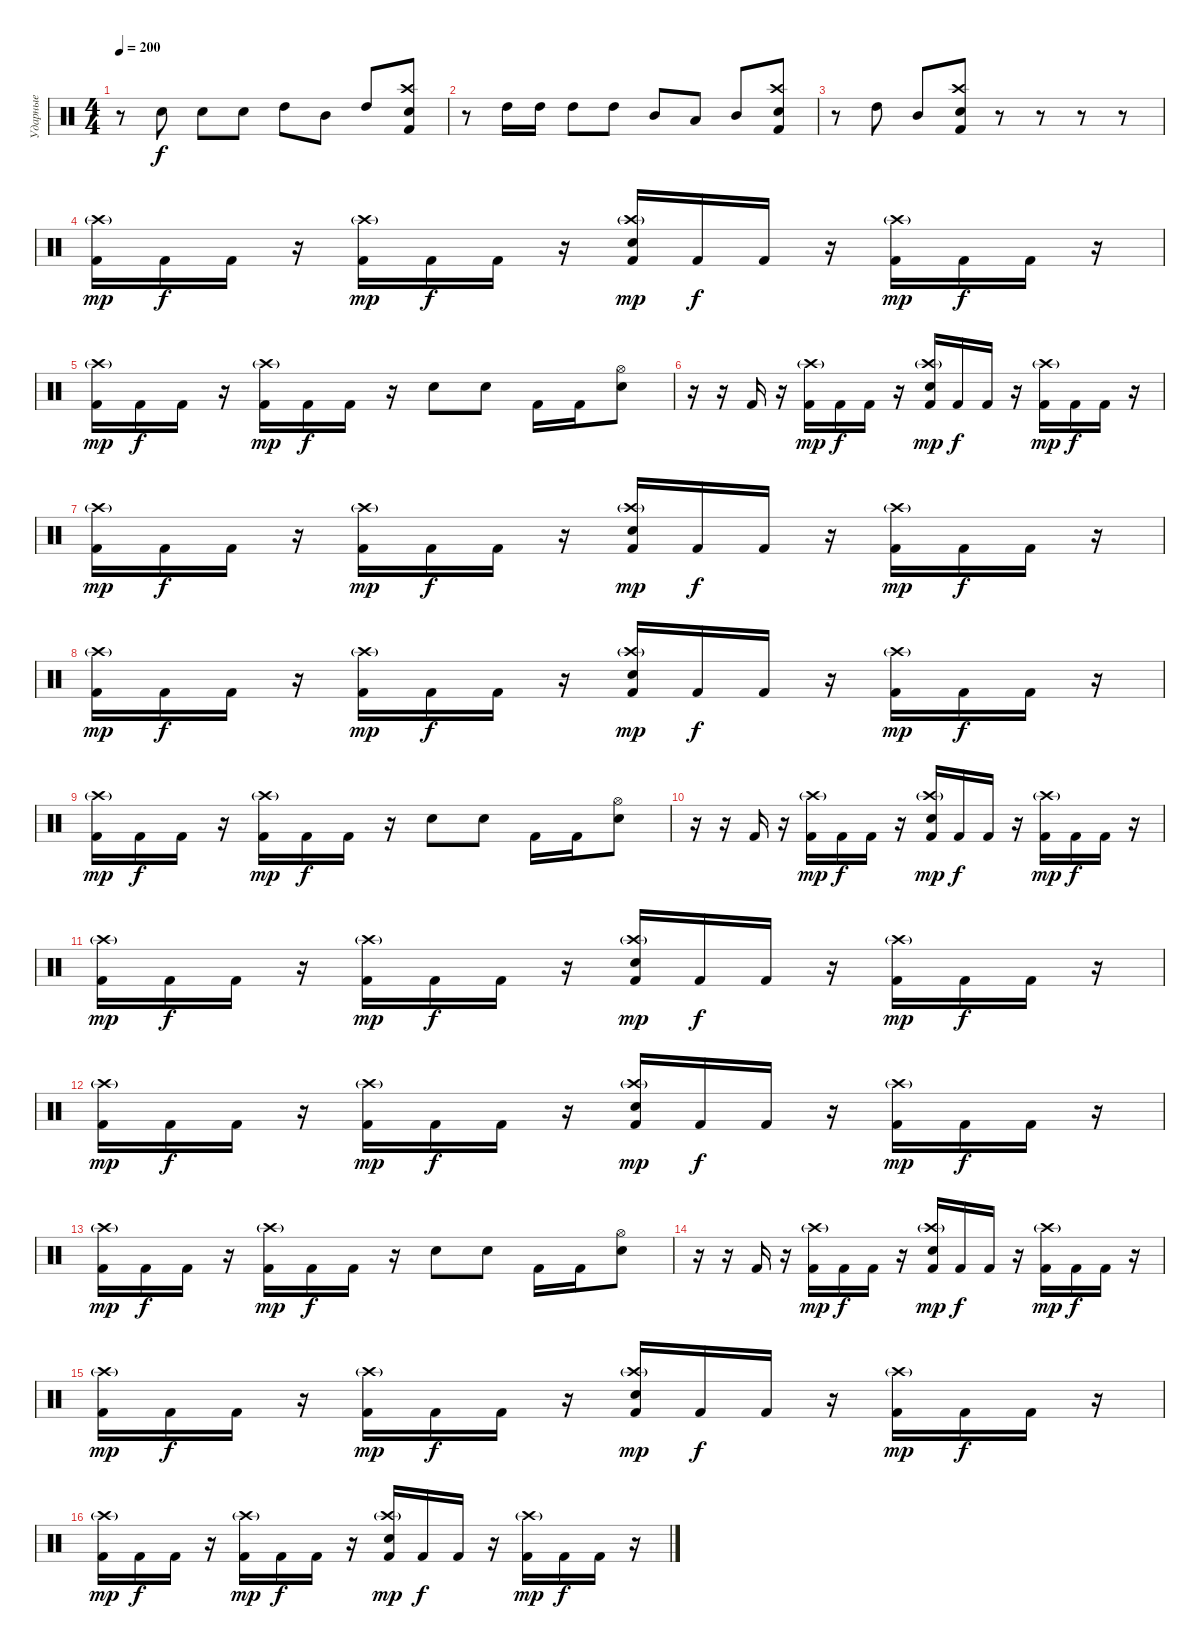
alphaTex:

\track ("Ударные" "Ударные") {instrument percussion bank 101}
\staff {score}
\articulation defaults
\ts (4 4)
\tempo 200
\clef neutral
\ks c
r.8{dy f} "Electric Snare (hit)".8 "Electric Snare (hit)".8 "Electric Snare (hit)".8 "High Tom (hit)".8 "Mid Tom (hit)".8 "High Tom (hit)".8 ("Crash high (hit)" "Electric Snare (hit)" "Kick (hit) 2").8 |
r.8 "High Tom (hit)".16 "High Tom (hit)".16 "High Tom (hit)".8 "High Tom (hit)".8 "Mid Tom (hit)".8 "Low Tom (hit)".8 "Mid Tom (hit)".8 ("Crash high (hit)" "Electric Snare (hit)" "Kick (hit) 2").8 |
r.8 "High Tom (hit)".8 "Mid Tom (hit)".8 ("Crash high (hit)" "Electric Snare (hit)" "Kick (hit) 2").8 r.8 r.8 r.8 r.8 |
("Crash high (hit)"{g} "Kick (hit) 2").16{dy mp} "Kick (hit) 2".16{dy f} "Kick (hit) 2".16 r.16 ("Crash high (hit)"{g} "Kick (hit) 2").16{dy mp} "Kick (hit) 2".16{dy f} "Kick (hit) 2".16 r.16 ("Crash high (hit)"{g} "Electric Snare (hit)" "Kick (hit) 2").16{dy mp} "Kick (hit) 2".16{dy f} "Kick (hit) 2".16 r.16 ("Crash high (hit)"{g} "Kick (hit) 2").16{dy mp} "Kick (hit) 2".16{dy f} "Kick (hit) 2".16 r.16 |
("Crash high (hit)"{g} "Kick (hit) 2").16{dy mp} "Kick (hit) 2".16{dy f} "Kick (hit) 2".16 r.16 ("Crash high (hit)"{g} "Kick (hit) 2").16{dy mp} "Kick (hit) 2".16{dy f} "Kick (hit) 2".16 r.16 "Electric Snare (hit)".8 "Electric Snare (hit)".8 "Kick (hit) 2".16 "Kick (hit) 2".16 ("Hi-Hat (open)" "Electric Snare (hit)").8 |
r.16 r.16 "Kick (hit) 2".16 r.16 ("Crash high (hit)"{g} "Kick (hit) 2").16{dy mp} "Kick (hit) 2".16{dy f} "Kick (hit) 2".16 r.16 ("Crash high (hit)"{g} "Electric Snare (hit)" "Kick (hit) 2").16{dy mp} "Kick (hit) 2".16{dy f} "Kick (hit) 2".16 r.16 ("Crash high (hit)"{g} "Kick (hit) 2").16{dy mp} "Kick (hit) 2".16{dy f} "Kick (hit) 2".16 r.16 |
("Crash high (hit)"{g} "Kick (hit) 2").16{dy mp} "Kick (hit) 2".16{dy f} "Kick (hit) 2".16 r.16 ("Crash high (hit)"{g} "Kick (hit) 2").16{dy mp} "Kick (hit) 2".16{dy f} "Kick (hit) 2".16 r.16 ("Crash high (hit)"{g} "Electric Snare (hit)" "Kick (hit) 2").16{dy mp} "Kick (hit) 2".16{dy f} "Kick (hit) 2".16 r.16 ("Crash high (hit)"{g} "Kick (hit) 2").16{dy mp} "Kick (hit) 2".16{dy f} "Kick (hit) 2".16 r.16 |
("Crash high (hit)"{g} "Kick (hit) 2").16{dy mp} "Kick (hit) 2".16{dy f} "Kick (hit) 2".16 r.16 ("Crash high (hit)"{g} "Kick (hit) 2").16{dy mp} "Kick (hit) 2".16{dy f} "Kick (hit) 2".16 r.16 ("Crash high (hit)"{g} "Electric Snare (hit)" "Kick (hit) 2").16{dy mp} "Kick (hit) 2".16{dy f} "Kick (hit) 2".16 r.16 ("Crash high (hit)"{g} "Kick (hit) 2").16{dy mp} "Kick (hit) 2".16{dy f} "Kick (hit) 2".16 r.16 |
("Crash high (hit)"{g} "Kick (hit) 2").16{dy mp} "Kick (hit) 2".16{dy f} "Kick (hit) 2".16 r.16 ("Crash high (hit)"{g} "Kick (hit) 2").16{dy mp} "Kick (hit) 2".16{dy f} "Kick (hit) 2".16 r.16 "Electric Snare (hit)".8 "Electric Snare (hit)".8 "Kick (hit) 2".16 "Kick (hit) 2".16 ("Hi-Hat (open)" "Electric Snare (hit)").8 |
r.16 r.16 "Kick (hit) 2".16 r.16 ("Crash high (hit)"{g} "Kick (hit) 2").16{dy mp} "Kick (hit) 2".16{dy f} "Kick (hit) 2".16 r.16 ("Crash high (hit)"{g} "Electric Snare (hit)" "Kick (hit) 2").16{dy mp} "Kick (hit) 2".16{dy f} "Kick (hit) 2".16 r.16 ("Crash high (hit)"{g} "Kick (hit) 2").16{dy mp} "Kick (hit) 2".16{dy f} "Kick (hit) 2".16 r.16 |
("Crash high (hit)"{g} "Kick (hit) 2").16{dy mp} "Kick (hit) 2".16{dy f} "Kick (hit) 2".16 r.16 ("Crash high (hit)"{g} "Kick (hit) 2").16{dy mp} "Kick (hit) 2".16{dy f} "Kick (hit) 2".16 r.16 ("Crash high (hit)"{g} "Electric Snare (hit)" "Kick (hit) 2").16{dy mp} "Kick (hit) 2".16{dy f} "Kick (hit) 2".16 r.16 ("Crash high (hit)"{g} "Kick (hit) 2").16{dy mp} "Kick (hit) 2".16{dy f} "Kick (hit) 2".16 r.16 |
("Crash high (hit)"{g} "Kick (hit) 2").16{dy mp} "Kick (hit) 2".16{dy f} "Kick (hit) 2".16 r.16 ("Crash high (hit)"{g} "Kick (hit) 2").16{dy mp} "Kick (hit) 2".16{dy f} "Kick (hit) 2".16 r.16 ("Crash high (hit)"{g} "Electric Snare (hit)" "Kick (hit) 2").16{dy mp} "Kick (hit) 2".16{dy f} "Kick (hit) 2".16 r.16 ("Crash high (hit)"{g} "Kick (hit) 2").16{dy mp} "Kick (hit) 2".16{dy f} "Kick (hit) 2".16 r.16 |
("Crash high (hit)"{g} "Kick (hit) 2").16{dy mp} "Kick (hit) 2".16{dy f} "Kick (hit) 2".16 r.16 ("Crash high (hit)"{g} "Kick (hit) 2").16{dy mp} "Kick (hit) 2".16{dy f} "Kick (hit) 2".16 r.16 "Electric Snare (hit)".8 "Electric Snare (hit)".8 "Kick (hit) 2".16 "Kick (hit) 2".16 ("Hi-Hat (open)" "Electric Snare (hit)").8 |
r.16 r.16 "Kick (hit) 2".16 r.16 ("Crash high (hit)"{g} "Kick (hit) 2").16{dy mp} "Kick (hit) 2".16{dy f} "Kick (hit) 2".16 r.16 ("Crash high (hit)"{g} "Electric Snare (hit)" "Kick (hit) 2").16{dy mp} "Kick (hit) 2".16{dy f} "Kick (hit) 2".16 r.16 ("Crash high (hit)"{g} "Kick (hit) 2").16{dy mp} "Kick (hit) 2".16{dy f} "Kick (hit) 2".16 r.16 |
("Crash high (hit)"{g} "Kick (hit) 2").16{dy mp} "Kick (hit) 2".16{dy f} "Kick (hit) 2".16 r.16 ("Crash high (hit)"{g} "Kick (hit) 2").16{dy mp} "Kick (hit) 2".16{dy f} "Kick (hit) 2".16 r.16 ("Crash high (hit)"{g} "Electric Snare (hit)" "Kick (hit) 2").16{dy mp} "Kick (hit) 2".16{dy f} "Kick (hit) 2".16 r.16 ("Crash high (hit)"{g} "Kick (hit) 2").16{dy mp} "Kick (hit) 2".16{dy f} "Kick (hit) 2".16 r.16 |
("Crash high (hit)"{g} "Kick (hit) 2").16{dy mp} "Kick (hit) 2".16{dy f} "Kick (hit) 2".16 r.16 ("Crash high (hit)"{g} "Kick (hit) 2").16{dy mp} "Kick (hit) 2".16{dy f} "Kick (hit) 2".16 r.16 ("Crash high (hit)"{g} "Electric Snare (hit)" "Kick (hit) 2").16{dy mp} "Kick (hit) 2".16{dy f} "Kick (hit) 2".16 r.16 ("Crash high (hit)"{g} "Kick (hit) 2").16{dy mp} "Kick (hit) 2".16{dy f} "Kick (hit) 2".16 r.16
